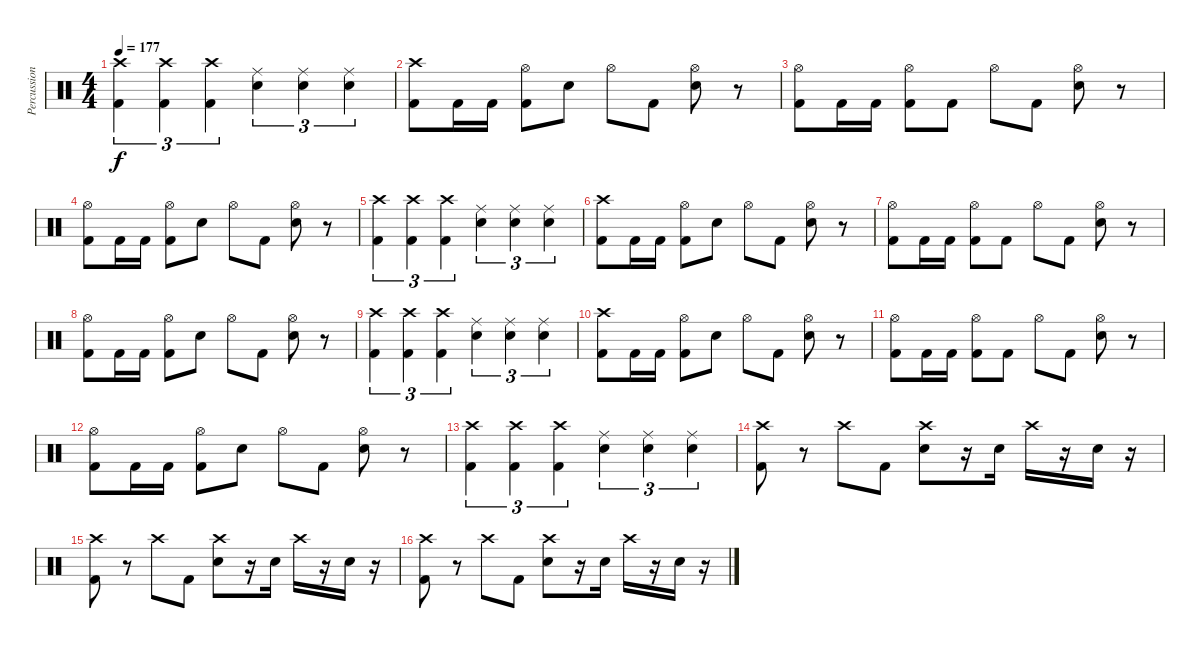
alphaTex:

\track ("Percussion" "Percussion") {instrument percussion}
\staff {score}
\articulation defaults
\ts (4 4)
\tempo 177
\clef neutral
\ks c
("Crash high (hit)" "Kick (hit) 2").4{tu (3 2) dy f} ("Crash high (hit)" "Kick (hit) 2").4{tu (3 2)} ("Crash high (hit)" "Kick (hit) 2").4{tu (3 2)} ("Ride (middle)" "Electric Snare (hit)").4{tu (3 2)} ("Ride (middle)" "Electric Snare (hit)").4{tu (3 2)} ("Ride (middle)" "Electric Snare (hit)").4{tu (3 2)} |
("Crash high (hit)" "Kick (hit) 2").8 "Kick (hit) 2".16 "Kick (hit) 2".16 ("Hi-Hat (open)" "Kick (hit) 2").8 "Electric Snare (hit)".8 "Hi-Hat (open)".8 "Kick (hit) 2".8 ("Hi-Hat (open)" "Electric Snare (hit)").8 r.8 |
("Hi-Hat (open)" "Kick (hit) 2").8 "Kick (hit) 2".16 "Kick (hit) 2".16 ("Hi-Hat (open)" "Kick (hit) 2").8 "Kick (hit) 2".8 "Hi-Hat (open)".8 "Kick (hit) 2".8 ("Hi-Hat (open)" "Electric Snare (hit)").8 r.8 |
("Hi-Hat (open)" "Kick (hit) 2").8 "Kick (hit) 2".16 "Kick (hit) 2".16 ("Hi-Hat (open)" "Kick (hit) 2").8 "Electric Snare (hit)".8 "Hi-Hat (open)".8 "Kick (hit) 2".8 ("Hi-Hat (open)" "Electric Snare (hit)").8 r.8 |
("Crash high (hit)" "Kick (hit) 2").4{tu (3 2)} ("Crash high (hit)" "Kick (hit) 2").4{tu (3 2)} ("Crash high (hit)" "Kick (hit) 2").4{tu (3 2)} ("Ride (middle)" "Electric Snare (hit)").4{tu (3 2)} ("Ride (middle)" "Electric Snare (hit)").4{tu (3 2)} ("Ride (middle)" "Electric Snare (hit)").4{tu (3 2)} |
("Crash high (hit)" "Kick (hit) 2").8 "Kick (hit) 2".16 "Kick (hit) 2".16 ("Hi-Hat (open)" "Kick (hit) 2").8 "Electric Snare (hit)".8 "Hi-Hat (open)".8 "Kick (hit) 2".8 ("Hi-Hat (open)" "Electric Snare (hit)").8 r.8 |
("Hi-Hat (open)" "Kick (hit) 2").8 "Kick (hit) 2".16 "Kick (hit) 2".16 ("Hi-Hat (open)" "Kick (hit) 2").8 "Kick (hit) 2".8 "Hi-Hat (open)".8 "Kick (hit) 2".8 ("Hi-Hat (open)" "Electric Snare (hit)").8 r.8 |
("Hi-Hat (open)" "Kick (hit) 2").8 "Kick (hit) 2".16 "Kick (hit) 2".16 ("Hi-Hat (open)" "Kick (hit) 2").8 "Electric Snare (hit)".8 "Hi-Hat (open)".8 "Kick (hit) 2".8 ("Hi-Hat (open)" "Electric Snare (hit)").8 r.8 |
("Crash high (hit)" "Kick (hit) 2").4{tu (3 2)} ("Crash high (hit)" "Kick (hit) 2").4{tu (3 2)} ("Crash high (hit)" "Kick (hit) 2").4{tu (3 2)} ("Ride (middle)" "Electric Snare (hit)").4{tu (3 2)} ("Ride (middle)" "Electric Snare (hit)").4{tu (3 2)} ("Ride (middle)" "Electric Snare (hit)").4{tu (3 2)} |
("Crash high (hit)" "Kick (hit) 2").8 "Kick (hit) 2".16 "Kick (hit) 2".16 ("Hi-Hat (open)" "Kick (hit) 2").8 "Electric Snare (hit)".8 "Hi-Hat (open)".8 "Kick (hit) 2".8 ("Hi-Hat (open)" "Electric Snare (hit)").8 r.8 |
("Hi-Hat (open)" "Kick (hit) 2").8 "Kick (hit) 2".16 "Kick (hit) 2".16 ("Hi-Hat (open)" "Kick (hit) 2").8 "Kick (hit) 2".8 "Hi-Hat (open)".8 "Kick (hit) 2".8 ("Hi-Hat (open)" "Electric Snare (hit)").8 r.8 |
("Hi-Hat (open)" "Kick (hit) 2").8 "Kick (hit) 2".16 "Kick (hit) 2".16 ("Hi-Hat (open)" "Kick (hit) 2").8 "Electric Snare (hit)".8 "Hi-Hat (open)".8 "Kick (hit) 2".8 ("Hi-Hat (open)" "Electric Snare (hit)").8 r.8 |
("Crash high (hit)" "Kick (hit) 2").4{tu (3 2)} ("Crash high (hit)" "Kick (hit) 2").4{tu (3 2)} ("Crash high (hit)" "Kick (hit) 2").4{tu (3 2)} ("Ride (middle)" "Electric Snare (hit)").4{tu (3 2)} ("Ride (middle)" "Electric Snare (hit)").4{tu (3 2)} ("Ride (middle)" "Electric Snare (hit)").4{tu (3 2)} |
("Crash high (hit)" "Kick (hit) 2").8 r.8 "Crash high (hit)".8 "Kick (hit) 2".8 ("Crash high (hit)" "Electric Snare (hit)").8 r.16 "Electric Snare (hit)".16 "Crash high (hit)".16 r.16 "Electric Snare (hit)".16 r.16 |
("Crash high (hit)" "Kick (hit) 2").8 r.8 "Crash high (hit)".8 "Kick (hit) 2".8 ("Crash high (hit)" "Electric Snare (hit)").8 r.16 "Electric Snare (hit)".16 "Crash high (hit)".16 r.16 "Electric Snare (hit)".16 r.16 |
("Crash high (hit)" "Kick (hit) 2").8 r.8 "Crash high (hit)".8 "Kick (hit) 2".8 ("Crash high (hit)" "Electric Snare (hit)").8 r.16 "Electric Snare (hit)".16 "Crash high (hit)".16 r.16 "Electric Snare (hit)".16 r.16
